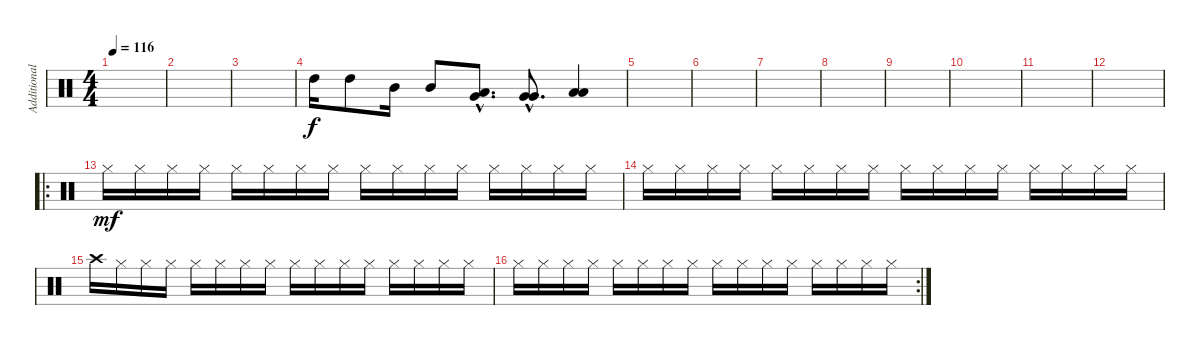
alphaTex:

\track ("Additional Drums" "Additional") {instrument percussion}
\staff {score}
\articulation defaults
\ts (4 4)
\tempo 116
\clef neutral
\ks c
|
|
|
"High Tom (hit)".16 "High Tom (hit)".8 "Mid Tom (hit)".16 "Mid Tom (hit)".8 ("Low Tom (hit)"{hac} "Very Low Tom (hit)"{hac}).8{d} ("Very Low Tom (hit)"{hac} "Very Low Tom (hit)"{hac}).8{d} ("Low Floor Tom (hit)" "Low Floor Tom (hit)").4 |
|
|
|
|
|
|
|
|
\ro "Hi-Hat (closed)".16{dy mf} "Hi-Hat (closed)".16 "Hi-Hat (closed)".16 "Hi-Hat (closed)".16 "Hi-Hat (closed)".16 "Hi-Hat (closed)".16 "Hi-Hat (closed)".16 "Hi-Hat (closed)".16 "Hi-Hat (closed)".16 "Hi-Hat (closed)".16 "Hi-Hat (closed)".16 "Hi-Hat (closed)".16 "Hi-Hat (closed)".16 "Hi-Hat (closed)".16 "Hi-Hat (closed)".16 "Hi-Hat (closed)".16
|
"Hi-Hat (closed)".16 "Hi-Hat (closed)".16 "Hi-Hat (closed)".16 "Hi-Hat (closed)".16 "Hi-Hat (closed)".16 "Hi-Hat (closed)".16 "Hi-Hat (closed)".16 "Hi-Hat (closed)".16 "Hi-Hat (closed)".16 "Hi-Hat (closed)".16 "Hi-Hat (closed)".16 "Hi-Hat (closed)".16 "Hi-Hat (closed)".16 "Hi-Hat (closed)".16 "Hi-Hat (closed)".16 "Hi-Hat (closed)".16 |
"Crash high (hit)".16 "Hi-Hat (closed)".16 "Hi-Hat (closed)".16 "Hi-Hat (closed)".16 "Hi-Hat (closed)".16 "Hi-Hat (closed)".16 "Hi-Hat (closed)".16 "Hi-Hat (closed)".16 "Hi-Hat (closed)".16 "Hi-Hat (closed)".16 "Hi-Hat (closed)".16 "Hi-Hat (closed)".16 "Hi-Hat (closed)".16 "Hi-Hat (closed)".16 "Hi-Hat (closed)".16 "Hi-Hat (closed)".16 |
\rc 2 "Hi-Hat (closed)".16 "Hi-Hat (closed)".16 "Hi-Hat (closed)".16 "Hi-Hat (closed)".16 "Hi-Hat (closed)".16 "Hi-Hat (closed)".16 "Hi-Hat (closed)".16 "Hi-Hat (closed)".16 "Hi-Hat (closed)".16 "Hi-Hat (closed)".16 "Hi-Hat (closed)".16 "Hi-Hat (closed)".16 "Hi-Hat (closed)".16 "Hi-Hat (closed)".16 "Hi-Hat (closed)".16 "Hi-Hat (closed)".16
